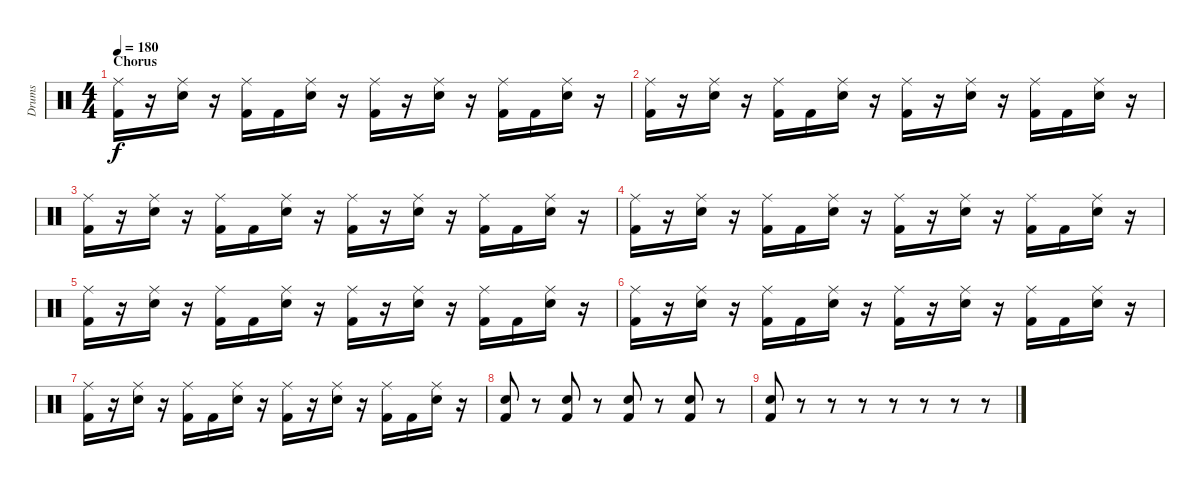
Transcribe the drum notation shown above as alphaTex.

\track ("Drums" "Drums") {instrument percussion}
\staff {score}
\articulation defaults
\ts (4 4)
\section ("" "Chorus")
\tempo 180
\clef neutral
\ks c
("Ride (middle)" "Kick (hit) 2").16{dy f} r.16 ("Ride (middle)" "Snare (hit) 2").16 r.16 ("Ride (middle)" "Kick (hit) 2").16 "Kick (hit) 2".16 ("Ride (middle)" "Snare (hit) 2").16 r.16 ("Ride (middle)" "Kick (hit) 2").16 r.16 ("Ride (middle)" "Snare (hit) 2").16 r.16 ("Ride (middle)" "Kick (hit) 2").16 "Kick (hit) 2".16 ("Ride (middle)" "Snare (hit) 2").16 r.16 |
("Ride (middle)" "Kick (hit) 2").16 r.16 ("Ride (middle)" "Snare (hit) 2").16 r.16 ("Ride (middle)" "Kick (hit) 2").16 "Kick (hit) 2".16 ("Ride (middle)" "Snare (hit) 2").16 r.16 ("Ride (middle)" "Kick (hit) 2").16 r.16 ("Ride (middle)" "Snare (hit) 2").16 r.16 ("Ride (middle)" "Kick (hit) 2").16 "Kick (hit) 2".16 ("Ride (middle)" "Snare (hit) 2").16 r.16 |
("Ride (middle)" "Kick (hit) 2").16 r.16 ("Ride (middle)" "Snare (hit) 2").16 r.16 ("Ride (middle)" "Kick (hit) 2").16 "Kick (hit) 2".16 ("Ride (middle)" "Snare (hit) 2").16 r.16 ("Ride (middle)" "Kick (hit) 2").16 r.16 ("Ride (middle)" "Snare (hit) 2").16 r.16 ("Ride (middle)" "Kick (hit) 2").16 "Kick (hit) 2".16 ("Ride (middle)" "Snare (hit) 2").16 r.16 |
("Ride (middle)" "Kick (hit) 2").16 r.16 ("Ride (middle)" "Snare (hit) 2").16 r.16 ("Ride (middle)" "Kick (hit) 2").16 "Kick (hit) 2".16 ("Ride (middle)" "Snare (hit) 2").16 r.16 ("Ride (middle)" "Kick (hit) 2").16 r.16 ("Ride (middle)" "Snare (hit) 2").16 r.16 ("Ride (middle)" "Kick (hit) 2").16 "Kick (hit) 2".16 ("Ride (middle)" "Snare (hit) 2").16 r.16 |
("Ride (middle)" "Kick (hit) 2").16 r.16 ("Ride (middle)" "Snare (hit) 2").16 r.16 ("Ride (middle)" "Kick (hit) 2").16 "Kick (hit) 2".16 ("Ride (middle)" "Snare (hit) 2").16 r.16 ("Ride (middle)" "Kick (hit) 2").16 r.16 ("Ride (middle)" "Snare (hit) 2").16 r.16 ("Ride (middle)" "Kick (hit) 2").16 "Kick (hit) 2".16 ("Ride (middle)" "Snare (hit) 2").16 r.16 |
("Ride (middle)" "Kick (hit) 2").16 r.16 ("Ride (middle)" "Snare (hit) 2").16 r.16 ("Ride (middle)" "Kick (hit) 2").16 "Kick (hit) 2".16 ("Ride (middle)" "Snare (hit) 2").16 r.16 ("Ride (middle)" "Kick (hit) 2").16 r.16 ("Ride (middle)" "Snare (hit) 2").16 r.16 ("Ride (middle)" "Kick (hit) 2").16 "Kick (hit) 2".16 ("Ride (middle)" "Snare (hit) 2").16 r.16 |
("Ride (middle)" "Kick (hit) 2").16 r.16 ("Ride (middle)" "Snare (hit) 2").16 r.16 ("Ride (middle)" "Kick (hit) 2").16 "Kick (hit) 2".16 ("Ride (middle)" "Snare (hit) 2").16 r.16 ("Ride (middle)" "Kick (hit) 2").16 r.16 ("Ride (middle)" "Snare (hit) 2").16 r.16 ("Ride (middle)" "Kick (hit) 2").16 "Kick (hit) 2".16 ("Ride (middle)" "Snare (hit) 2").16 r.16 |
\section ("" "")
("Snare (hit) 2" "Kick (hit) 2").8 r.8 ("Snare (hit) 2" "Kick (hit) 2").8 r.8 ("Snare (hit) 2" "Kick (hit) 2").8 r.8 ("Snare (hit) 2" "Kick (hit) 2").8 r.8 |
("Snare (hit) 2" "Kick (hit) 2").8 r.8 r.8 r.8 r.8 r.8 r.8 r.8
